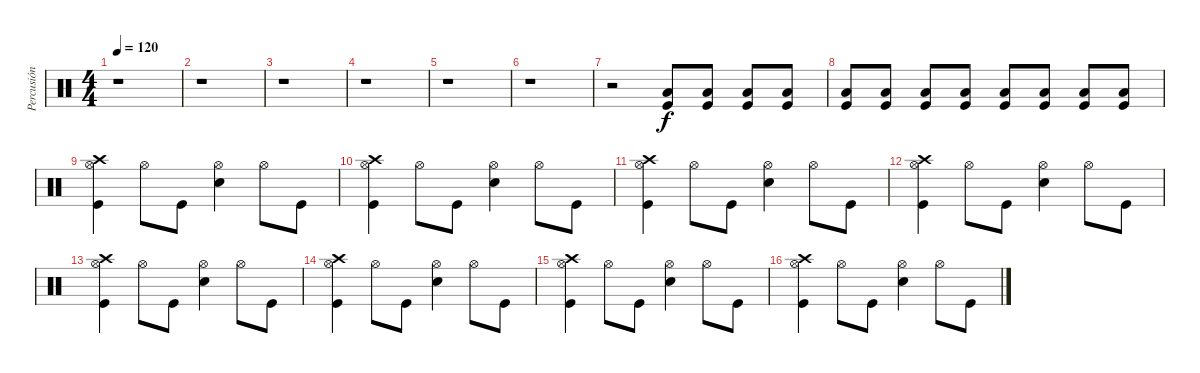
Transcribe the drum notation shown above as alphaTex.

\track ("Percusión" "Percusión") {instrument percussion}
\staff {score}
\articulation defaults
\ts (4 4)
\tempo 120
\tempo 117
\tempo 120
\clef neutral
\ks c
r.1{dy f} |
r.1 |
r.1 |
r.1 |
r.1 |
r.1 |
r.2{volume 0} ("Kick (hit)" "Low Tom (hit)").8{volume 14} ("Kick (hit)" "Low Tom (hit)").8 ("Kick (hit)" "Low Tom (hit)").8 ("Kick (hit)" "Low Tom (hit)").8 |
("Kick (hit)" "Low Tom (hit)").8 ("Kick (hit)" "Low Tom (hit)").8 ("Kick (hit)" "Low Tom (hit)").8 ("Kick (hit)" "Low Tom (hit)").8 ("Kick (hit)" "Low Tom (hit)").8 ("Kick (hit)" "Low Tom (hit)").8 ("Kick (hit)" "Low Tom (hit)").8 ("Kick (hit)" "Low Tom (hit)").8 |
("Kick (hit)" "Hi-Hat (open)" "Crash high (hit)").4 "Hi-Hat (open)".8 "Kick (hit)".8 ("Hi-Hat (open)" "Snare (hit) 2").4 "Hi-Hat (open)".8 "Kick (hit)".8 |
("Kick (hit)" "Hi-Hat (open)" "Crash high (hit)").4 "Hi-Hat (open)".8 "Kick (hit)".8 ("Hi-Hat (open)" "Snare (hit) 2").4 "Hi-Hat (open)".8 "Kick (hit)".8 |
("Kick (hit)" "Hi-Hat (open)" "Crash high (hit)").4 "Hi-Hat (open)".8 "Kick (hit)".8 ("Hi-Hat (open)" "Snare (hit) 2").4 "Hi-Hat (open)".8 "Kick (hit)".8 |
("Kick (hit)" "Hi-Hat (open)" "Crash high (hit)").4 "Hi-Hat (open)".8 "Kick (hit)".8 ("Hi-Hat (open)" "Snare (hit) 2").4 "Hi-Hat (open)".8 "Kick (hit)".8 |
("Kick (hit)" "Hi-Hat (open)" "Crash high (hit)").4 "Hi-Hat (open)".8 "Kick (hit)".8 ("Hi-Hat (open)" "Snare (hit) 2").4 "Hi-Hat (open)".8 "Kick (hit)".8 |
("Kick (hit)" "Hi-Hat (open)" "Crash high (hit)").4 "Hi-Hat (open)".8 "Kick (hit)".8 ("Hi-Hat (open)" "Snare (hit) 2").4 "Hi-Hat (open)".8 "Kick (hit)".8 |
("Kick (hit)" "Hi-Hat (open)" "Crash high (hit)").4 "Hi-Hat (open)".8 "Kick (hit)".8 ("Hi-Hat (open)" "Snare (hit) 2").4 "Hi-Hat (open)".8 "Kick (hit)".8 |
("Kick (hit)" "Hi-Hat (open)" "Crash high (hit)").4 "Hi-Hat (open)".8 "Kick (hit)".8 ("Hi-Hat (open)" "Snare (hit) 2").4 "Hi-Hat (open)".8 "Kick (hit)".8
